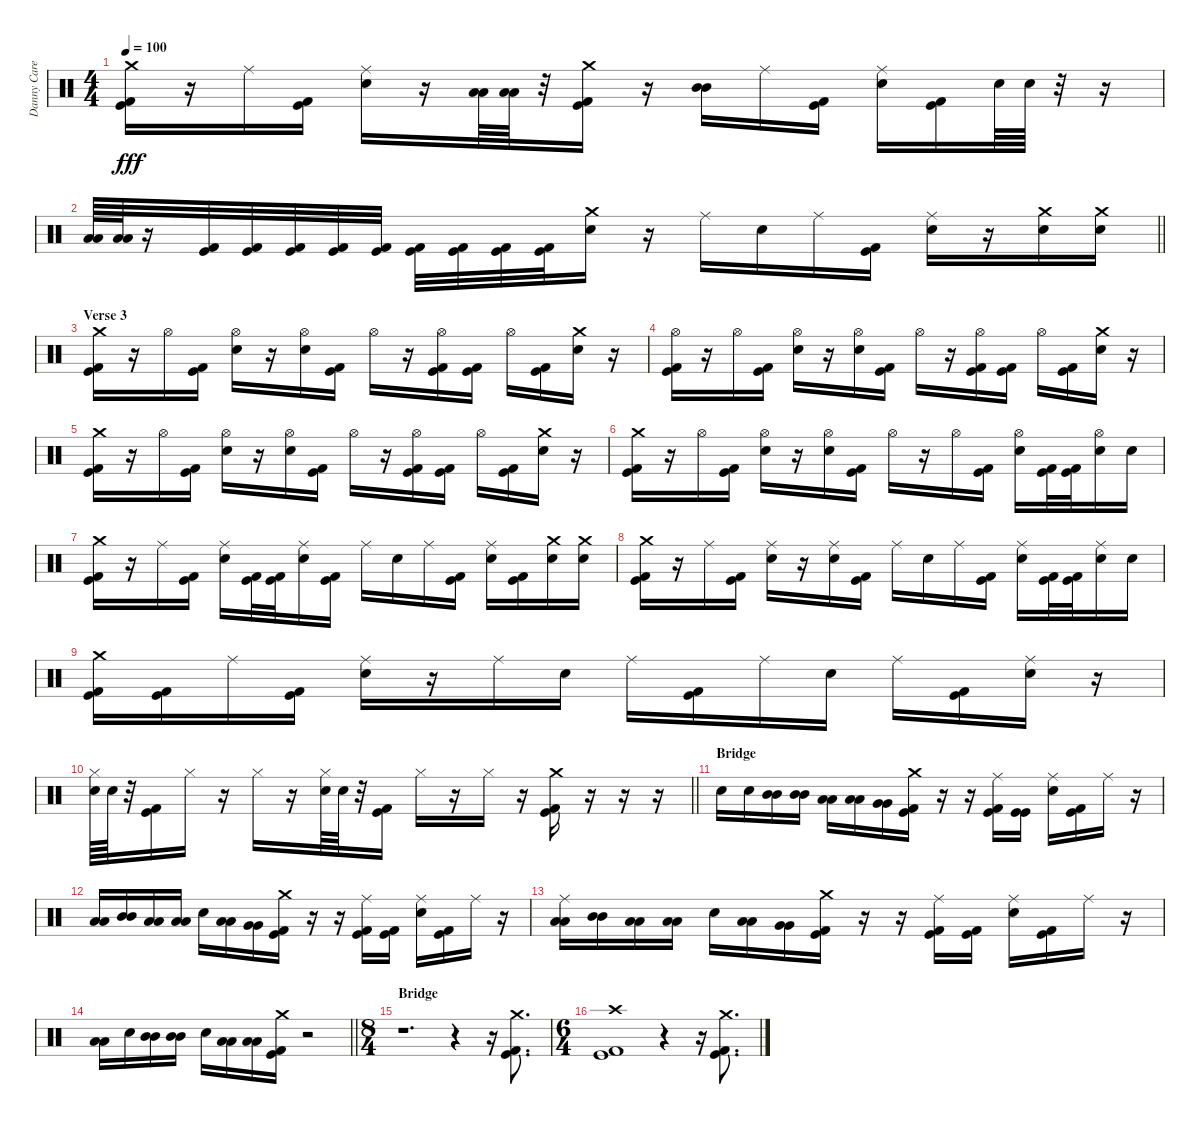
\track ("Danny Carey - Percussion" "Danny Care") {instrument percussion}
\staff {score}
\articulation defaults
\ts (4 4)
\tempo 100
\clef neutral
\ks c
("Crash medium (hit)" "Kick (hit)" "Kick (hit) 2").16{dy fff} r.16 "Ride (middle)".16 ("Kick (hit)" "Kick (hit) 2").16 ("Ride (middle)" "Electric Snare (hit)").16 r.16 ("Low Tom (hit)" "Low Tom (hit)").64 ("Low Tom (hit)" "Low Tom (hit)").64 r.32 ("Crash medium (hit)" "Kick (hit)" "Kick (hit) 2").16 r.16 ("Mid Tom (hit)" "Mid Tom (hit)").16 "Ride (middle)".16 ("Kick (hit)" "Kick (hit) 2").16 ("Ride (middle)" "Electric Snare (hit)").16 ("Kick (hit)" "Kick (hit) 2").16 "Electric Snare (hit)".64 "Electric Snare (hit)".64 r.32 r.16 |
\barLineRight lightlight
("Low Tom (hit)" "Low Tom (hit)").64 ("Low Tom (hit)" "Low Tom (hit)").64 r.16 ("Kick (hit)" "Kick (hit) 2").32 ("Kick (hit)" "Kick (hit) 2").32 ("Kick (hit)" "Kick (hit) 2").32 ("Kick (hit)" "Kick (hit) 2").32 ("Kick (hit)" "Kick (hit) 2").32 ("Kick (hit)" "Kick (hit) 2").32 ("Kick (hit)" "Kick (hit) 2").32 ("Kick (hit)" "Kick (hit) 2").32 ("Kick (hit)" "Kick (hit) 2").32 ("Crash medium (hit)" "Electric Snare (hit)").16 r.16 "Ride (middle)".16 "Electric Snare (hit)".16 "Ride (middle)".16 ("Kick (hit)" "Kick (hit) 2").16 ("Ride (middle)" "Electric Snare (hit)").16 r.16 ("Crash medium (hit)" "Electric Snare (hit)").16 ("Crash medium (hit)" "Electric Snare (hit)").16 |
\section ("" "Verse 3")
("Crash medium (hit)" "Kick (hit)" "Kick (hit) 2").16 r.16 "Hi-Hat (open)".16 ("Kick (hit)" "Kick (hit) 2").16 ("Hi-Hat (open)" "Electric Snare (hit)").16 r.16 ("Hi-Hat (open)" "Electric Snare (hit)").16 ("Kick (hit)" "Kick (hit) 2").16 "Hi-Hat (open)".16 r.16 ("Hi-Hat (open)" "Kick (hit)" "Kick (hit) 2").16 ("Kick (hit)" "Kick (hit) 2").16 "Hi-Hat (open)".16 ("Kick (hit)" "Kick (hit) 2").16 ("Crash medium (hit)" "Electric Snare (hit)").16 r.16 |
("Hi-Hat (open)" "Kick (hit)" "Kick (hit) 2").16 r.16 "Hi-Hat (open)".16 ("Kick (hit)" "Kick (hit) 2").16 ("Hi-Hat (open)" "Electric Snare (hit)").16 r.16 ("Hi-Hat (open)" "Electric Snare (hit)").16 ("Kick (hit)" "Kick (hit) 2").16 "Hi-Hat (open)".16 r.16 ("Hi-Hat (open)" "Kick (hit)" "Kick (hit) 2").16 ("Kick (hit)" "Kick (hit) 2").16 "Hi-Hat (open)".16 ("Kick (hit)" "Kick (hit) 2").16 ("Crash medium (hit)" "Electric Snare (hit)").16 r.16 |
("Crash medium (hit)" "Kick (hit)" "Kick (hit) 2").16 r.16 "Hi-Hat (open)".16 ("Kick (hit)" "Kick (hit) 2").16 ("Hi-Hat (open)" "Electric Snare (hit)").16 r.16 ("Hi-Hat (open)" "Electric Snare (hit)").16 ("Kick (hit)" "Kick (hit) 2").16 "Hi-Hat (open)".16 r.16 ("Hi-Hat (open)" "Kick (hit)" "Kick (hit) 2").16 ("Kick (hit)" "Kick (hit) 2").16 "Hi-Hat (open)".16 ("Kick (hit)" "Kick (hit) 2").16 ("Crash medium (hit)" "Electric Snare (hit)").16 r.16 |
("Crash medium (hit)" "Kick (hit)" "Kick (hit) 2").16 r.16 "Hi-Hat (open)".16 ("Kick (hit)" "Kick (hit) 2").16 ("Hi-Hat (open)" "Electric Snare (hit)").16 r.16 ("Hi-Hat (open)" "Electric Snare (hit)").16 ("Kick (hit)" "Kick (hit) 2").16 "Hi-Hat (open)".16 r.16 "Hi-Hat (open)".16 ("Kick (hit)" "Kick (hit) 2").16 ("Hi-Hat (open)" "Electric Snare (hit)").16 ("Kick (hit)" "Kick (hit) 2").32 ("Kick (hit)" "Kick (hit) 2").32 ("Hi-Hat (open)" "Electric Snare (hit)").16 "Electric Snare (hit)".16 |
("Crash medium (hit)" "Kick (hit)" "Kick (hit) 2").16 r.16 "Ride (middle)".16 ("Kick (hit)" "Kick (hit) 2").16 ("Ride (middle)" "Electric Snare (hit)").16 ("Kick (hit)" "Kick (hit) 2").32 ("Kick (hit)" "Kick (hit) 2").32 ("Ride (middle)" "Electric Snare (hit)").16 ("Kick (hit)" "Kick (hit) 2").16 "Ride (middle)".16 "Electric Snare (hit)".16 "Ride (middle)".16 ("Kick (hit)" "Kick (hit) 2").16 ("Ride (middle)" "Electric Snare (hit)").16 ("Kick (hit)" "Kick (hit) 2").16 ("Crash medium (hit)" "Electric Snare (hit)").16 ("Crash medium (hit)" "Electric Snare (hit)").16 |
("Crash medium (hit)" "Kick (hit)" "Kick (hit) 2").16 r.16 "Ride (middle)".16 ("Kick (hit)" "Kick (hit) 2").16 ("Ride (middle)" "Electric Snare (hit)").16 r.16 ("Ride (middle)" "Electric Snare (hit)").16 ("Kick (hit)" "Kick (hit) 2").16 "Ride (middle)".16 "Electric Snare (hit)".16 "Ride (middle)".16 ("Kick (hit)" "Kick (hit) 2").16 ("Ride (middle)" "Electric Snare (hit)").16 ("Kick (hit)" "Kick (hit) 2").32 ("Kick (hit)" "Kick (hit) 2").32 ("Ride (middle)" "Electric Snare (hit)").16 "Electric Snare (hit)".16 |
("Crash medium (hit)" "Kick (hit)" "Kick (hit) 2").16 ("Kick (hit)" "Kick (hit) 2").16 "Ride (middle)".16 ("Kick (hit)" "Kick (hit) 2").16 ("Ride (middle)" "Electric Snare (hit)").16 r.16 "Ride (middle)".16 "Electric Snare (hit)".16 "Ride (middle)".16 ("Kick (hit)" "Kick (hit) 2").16 "Ride (middle)".16 "Electric Snare (hit)".16 "Ride (middle)".16 ("Kick (hit)" "Kick (hit) 2").16 ("Ride (middle)" "Electric Snare (hit)").16 r.16 |
\barLineRight lightlight
("Hi-Hat (closed)" "Electric Snare (hit)").64 "Electric Snare (hit)".64 r.32 ("Kick (hit)" "Kick (hit) 2").16 "Hi-Hat (closed)".16 r.16 "Hi-Hat (closed)".16 r.16 ("Hi-Hat (closed)" "Electric Snare (hit)").64 "Electric Snare (hit)".64 r.32 ("Kick (hit)" "Kick (hit) 2").16 "Hi-Hat (closed)".16 r.16 "Hi-Hat (closed)".16 r.16 ("Crash medium (hit)" "Kick (hit)" "Kick (hit) 2").16 r.16 r.16 r.16 |
\section ("" "Bridge")
"Electric Snare (hit)".16 "Electric Snare (hit)".16 ("Mid Tom (hit)" "Mid Tom (hit)").16 ("Mid Tom (hit)" "Mid Tom (hit)").16 ("Low Tom (hit)" "Low Tom (hit)").16 ("Low Tom (hit)" "Low Tom (hit)").16 ("Very Low Tom (hit)" "Very Low Tom (hit)").16 ("Crash medium (hit)" "Kick (hit)" "Kick (hit) 2").16 r.16 r.16 ("Ride (middle)" "Kick (hit)" "Kick (hit) 2").16 ("Kick (hit)" "Kick (hit)").16 ("Ride (middle)" "Electric Snare (hit)").16 ("Kick (hit)" "Kick (hit) 2").16 "Ride (middle)".16 r.16 |
("Low Tom (hit)" "Low Tom (hit)").16 ("Mid Tom (hit)" "Mid Tom (hit)").16 ("Low Tom (hit)" "Low Tom (hit)").16 ("Low Tom (hit)" "Low Tom (hit)").16 "Electric Snare (hit)".16 ("Low Tom (hit)" "Low Tom (hit)").16 ("Very Low Tom (hit)" "Very Low Tom (hit)").16 ("Crash medium (hit)" "Kick (hit)" "Kick (hit) 2").16 r.16 r.16 ("Ride (middle)" "Kick (hit)" "Kick (hit) 2").16 ("Kick (hit)" "Kick (hit) 2").16 ("Ride (middle)" "Electric Snare (hit)").16 ("Kick (hit)" "Kick (hit) 2").16 "Ride (middle)".16 r.16 |
("Ride (middle)" "Low Tom (hit)" "Low Tom (hit)").16 ("Mid Tom (hit)" "Mid Tom (hit)").16 ("Low Tom (hit)" "Low Tom (hit)").16 ("Low Tom (hit)" "Low Tom (hit)").16 "Electric Snare (hit)".16 ("Low Tom (hit)" "Low Tom (hit)").16 ("Very Low Tom (hit)" "Very Low Tom (hit)").16 ("Crash medium (hit)" "Kick (hit)" "Kick (hit) 2").16 r.16 r.16 ("Ride (middle)" "Kick (hit)" "Kick (hit) 2").16 ("Kick (hit)" "Kick (hit) 2").16 ("Ride (middle)" "Electric Snare (hit)").16 ("Kick (hit)" "Kick (hit) 2").16 "Ride (middle)".16 r.16 |
\barLineRight lightlight
("Low Tom (hit)" "Low Tom (hit)").16 "Electric Snare (hit)".16 ("Mid Tom (hit)" "Mid Tom (hit)").16 ("Mid Tom (hit)" "Mid Tom (hit)").16 "Electric Snare (hit)".16 ("Low Tom (hit)" "Low Tom (hit)").16 ("Low Tom (hit)" "Low Tom (hit)").16 ("Crash medium (hit)" "Kick (hit)" "Kick (hit) 2").16 r.2 |
\ts (8 4)
\section ("" "Bridge")
r.1{d} r.4 r.16 ("Crash medium (hit)" "Kick (hit)" "Kick (hit) 2").8{d} |
\ts (6 4)
("Crash high (hit)" "Kick (hit)" "Kick (hit) 2").1 r.4 r.16 ("Crash medium (hit)" "Kick (hit)" "Kick (hit) 2").8{d}
